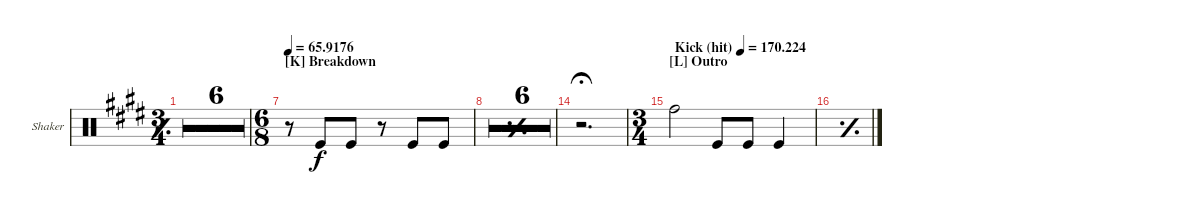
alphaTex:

\defaultSystemsLayout 4
\bracketExtendMode groupsimilarinstruments
\firstSystemTrackNameOrientation horizontal
\otherSystemsTrackNameOrientation horizontal
\track ("Shaker 2" "Shaker") {multiBarRest instrument percussion}
\staff {score}
\articulation defaults
\ts (3 4)
\tempo
165.176
\accidentals auto
\clef neutral
\ottava regular
\simile simple
\ks e
|
|
|
|
|
|
\ts (6 8)
\section ("K" "Breakdown")
\tempo
65.9176
\simile none
r.8 "Kick (hit)".8 "Kick (hit)".8 r.8 "Kick (hit)".8 "Kick (hit)".8 |
\simile simple
|
|
|
|
|
|
\simile none
r.2{d fermata (medium 0.5)} |
\ts (3 4)
\section ("L" "Outro")
\tempo
170.224 "Kick (hit)".4 "Kick (hit)".8 "Kick (hit)".8 "Kick (hit)".4 |
\simile simple
